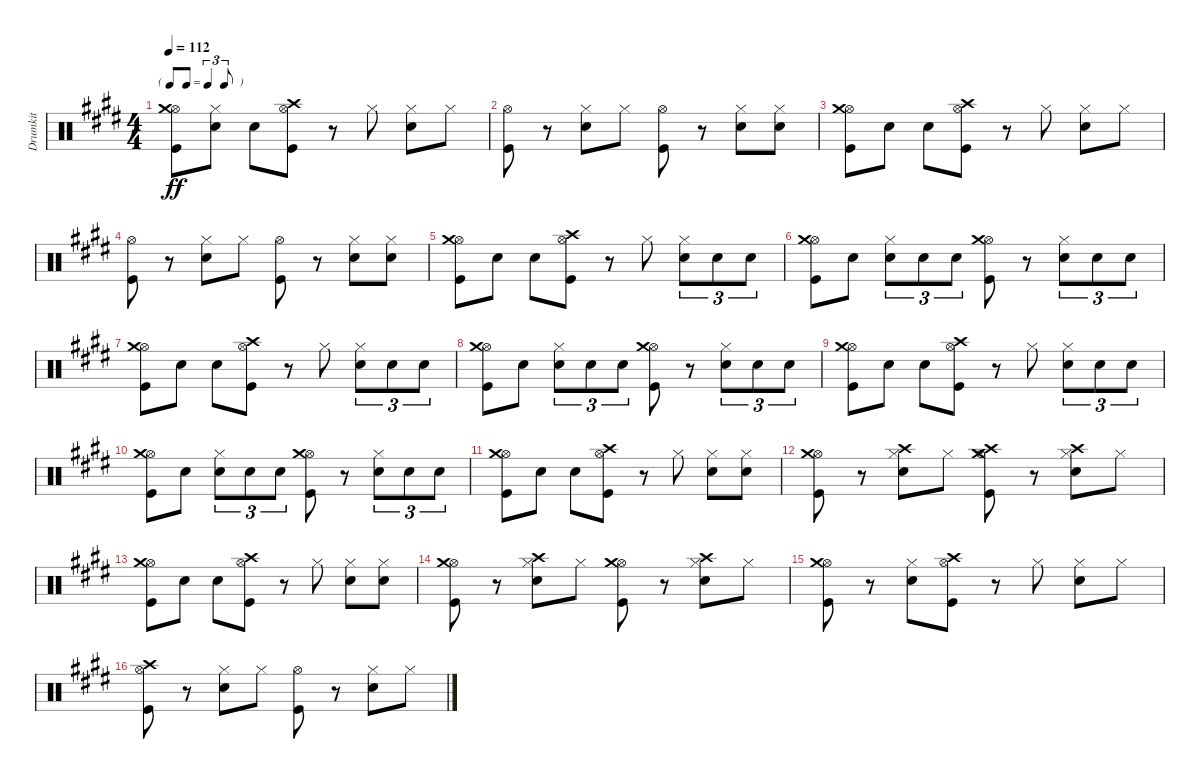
\track ("Drumkit" "Drumkit") {instrument percussion}
\staff {score}
\articulation defaults
\ts (4 4)
\tf triplet8th
\tempo 112
\clef neutral
\ks e
("Hi-Hat (open)" "Kick (hit)" "Crash medium (hit)").8{dy ff} ("Hi-Hat (closed)" "Snare (hit) 2").8 "Snare (hit) 2".8 ("Kick (hit)" "Hi-Hat (open)" "Crash high (hit)").8 r.8 "Hi-Hat (closed)".8 ("Snare (hit) 2" "Hi-Hat (closed)").8 "Hi-Hat (closed)".8 |
("Hi-Hat (open)" "Kick (hit)").8 r.8 ("Snare (hit) 2" "Hi-Hat (closed)").8 "Hi-Hat (closed)".8 ("Kick (hit)" "Hi-Hat (open)").8 r.8 ("Snare (hit) 2" "Hi-Hat (closed)").8 ("Hi-Hat (closed)" "Snare (hit) 2").8 |
("Hi-Hat (open)" "Kick (hit)" "Crash medium (hit)").8 "Snare (hit) 2".8 "Snare (hit) 2".8 ("Kick (hit)" "Hi-Hat (open)" "Crash high (hit)").8 r.8 "Hi-Hat (closed)".8 ("Snare (hit) 2" "Hi-Hat (closed)").8 "Hi-Hat (closed)".8 |
("Hi-Hat (open)" "Kick (hit)").8 r.8 ("Snare (hit) 2" "Hi-Hat (closed)").8 "Hi-Hat (closed)".8 ("Kick (hit)" "Hi-Hat (open)").8 r.8 ("Snare (hit) 2" "Hi-Hat (closed)").8 ("Hi-Hat (closed)" "Snare (hit) 2").8 |
("Hi-Hat (open)" "Kick (hit)" "Crash medium (hit)").8 "Snare (hit) 2".8 "Snare (hit) 2".8 ("Kick (hit)" "Hi-Hat (open)" "Crash high (hit)").8 r.8 "Hi-Hat (closed)".8 ("Snare (hit) 2" "Hi-Hat (closed)").8{tu (3 2)} "Snare (hit) 2".8{tu (3 2)} "Snare (hit) 2".8{tu (3 2)} |
("Hi-Hat (open)" "Kick (hit)" "Crash medium (hit)").8 "Snare (hit) 2".8 ("Snare (hit) 2" "Hi-Hat (closed)").8{tu (3 2)} "Snare (hit) 2".8{tu (3 2)} "Snare (hit) 2".8{tu (3 2)} ("Hi-Hat (open)" "Kick (hit)" "Crash medium (hit)").8 r.8 ("Snare (hit) 2" "Hi-Hat (closed)").8{tu (3 2)} "Snare (hit) 2".8{tu (3 2)} "Snare (hit) 2".8{tu (3 2)} |
("Hi-Hat (open)" "Kick (hit)" "Crash medium (hit)").8 "Snare (hit) 2".8 "Snare (hit) 2".8 ("Kick (hit)" "Hi-Hat (open)" "Crash high (hit)").8 r.8 "Hi-Hat (closed)".8 ("Snare (hit) 2" "Hi-Hat (closed)").8{tu (3 2)} "Snare (hit) 2".8{tu (3 2)} "Snare (hit) 2".8{tu (3 2)} |
("Hi-Hat (open)" "Kick (hit)" "Crash medium (hit)").8 "Snare (hit) 2".8 ("Snare (hit) 2" "Hi-Hat (closed)").8{tu (3 2)} "Snare (hit) 2".8{tu (3 2)} "Snare (hit) 2".8{tu (3 2)} ("Hi-Hat (open)" "Kick (hit)" "Crash medium (hit)").8 r.8 ("Snare (hit) 2" "Hi-Hat (closed)").8{tu (3 2)} "Snare (hit) 2".8{tu (3 2)} "Snare (hit) 2".8{tu (3 2)} |
("Hi-Hat (open)" "Kick (hit)" "Crash medium (hit)").8 "Snare (hit) 2".8 "Snare (hit) 2".8 ("Kick (hit)" "Hi-Hat (open)" "Crash high (hit)").8 r.8 "Hi-Hat (closed)".8 ("Snare (hit) 2" "Hi-Hat (closed)").8{tu (3 2)} "Snare (hit) 2".8{tu (3 2)} "Snare (hit) 2".8{tu (3 2)} |
("Hi-Hat (open)" "Kick (hit)" "Crash medium (hit)").8 "Snare (hit) 2".8 ("Snare (hit) 2" "Hi-Hat (closed)").8{tu (3 2)} "Snare (hit) 2".8{tu (3 2)} "Snare (hit) 2".8{tu (3 2)} ("Hi-Hat (open)" "Kick (hit)" "Crash medium (hit)").8 r.8 ("Snare (hit) 2" "Hi-Hat (closed)").8{tu (3 2)} "Snare (hit) 2".8{tu (3 2)} "Snare (hit) 2".8{tu (3 2)} |
("Hi-Hat (open)" "Kick (hit)" "Crash medium (hit)").8 "Snare (hit) 2".8 "Snare (hit) 2".8 ("Kick (hit)" "Hi-Hat (open)" "Crash high (hit)").8 r.8 "Hi-Hat (closed)".8 ("Snare (hit) 2" "Hi-Hat (closed)").8 ("Hi-Hat (closed)" "Snare (hit) 2").8 |
("Hi-Hat (open)" "Kick (hit)" "Crash medium (hit)").8 r.8 ("Snare (hit) 2" "Hi-Hat (closed)" "Crash high (hit)").8 "Hi-Hat (closed)".8 ("Kick (hit)" "Hi-Hat (open)" "Crash high (hit)" "Crash medium (hit)").8 r.8 ("Snare (hit) 2" "Hi-Hat (closed)" "Crash high (hit)").8 "Hi-Hat (closed)".8 |
("Kick (hit)" "Hi-Hat (open)" "Crash medium (hit)").8 "Snare (hit) 2".8 "Snare (hit) 2".8 ("Kick (hit)" "Hi-Hat (open)" "Crash high (hit)").8 r.8 "Hi-Hat (closed)".8 ("Snare (hit) 2" "Hi-Hat (closed)").8 ("Hi-Hat (closed)" "Snare (hit) 2").8 |
\section ("" "")
("Hi-Hat (open)" "Kick (hit)" "Crash medium (hit)").8 r.8 ("Snare (hit) 2" "Hi-Hat (closed)" "Crash high (hit)").8 "Hi-Hat (closed)".8 ("Hi-Hat (open)" "Kick (hit)" "Crash medium (hit)").8 r.8 ("Snare (hit) 2" "Hi-Hat (closed)" "Crash high (hit)").8 "Hi-Hat (closed)".8 |
("Hi-Hat (open)" "Kick (hit)" "Crash medium (hit)").8 r.8 ("Snare (hit) 2" "Hi-Hat (closed)").8 ("Hi-Hat (open)" "Kick (hit)" "Crash high (hit)").8 r.8 "Hi-Hat (closed)".8 ("Snare (hit) 2" "Hi-Hat (closed)").8 "Hi-Hat (closed)".8 |
("Hi-Hat (open)" "Kick (hit)" "Crash high (hit)").8 r.8 ("Snare (hit) 2" "Hi-Hat (closed)").8 "Hi-Hat (closed)".8 ("Kick (hit)" "Hi-Hat (open)").8 r.8 ("Snare (hit) 2" "Hi-Hat (closed)").8 "Hi-Hat (closed)".8
